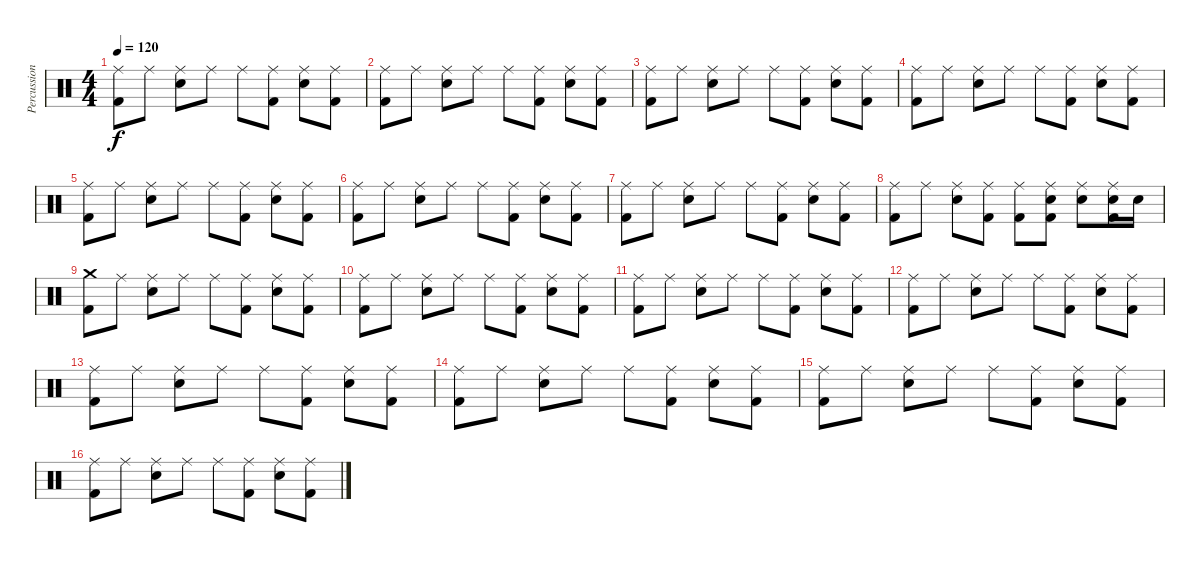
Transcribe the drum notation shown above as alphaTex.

\track ("Percussion" "Percussion") {instrument percussion}
\staff {score}
\articulation defaults
\ts (4 4)
\tempo 120
\clef neutral
\ks c
("Ride (middle)" "Kick (hit) 2").8{dy f} "Ride (middle)".8 ("Ride (middle)" "Snare (hit) 2").8 "Ride (middle)".8 "Ride (middle)".8 ("Ride (middle)" "Kick (hit) 2").8 ("Ride (middle)" "Snare (hit) 2").8 ("Ride (middle)" "Kick (hit) 2").8 |
("Ride (middle)" "Kick (hit) 2").8 "Ride (middle)".8 ("Ride (middle)" "Snare (hit) 2").8 "Ride (middle)".8 "Ride (middle)".8 ("Ride (middle)" "Kick (hit) 2").8 ("Ride (middle)" "Snare (hit) 2").8 ("Ride (middle)" "Kick (hit) 2").8 |
("Ride (middle)" "Kick (hit) 2").8 "Ride (middle)".8 ("Ride (middle)" "Snare (hit) 2").8 "Ride (middle)".8 "Ride (middle)".8 ("Ride (middle)" "Kick (hit) 2").8 ("Ride (middle)" "Snare (hit) 2").8 ("Ride (middle)" "Kick (hit) 2").8 |
("Ride (middle)" "Kick (hit) 2").8 "Ride (middle)".8 ("Ride (middle)" "Snare (hit) 2").8 "Ride (middle)".8 "Ride (middle)".8 ("Ride (middle)" "Kick (hit) 2").8 ("Ride (middle)" "Snare (hit) 2").8 ("Ride (middle)" "Kick (hit) 2").8 |
("Ride (middle)" "Kick (hit) 2").8 "Ride (middle)".8 ("Ride (middle)" "Snare (hit) 2").8 "Ride (middle)".8 "Ride (middle)".8 ("Ride (middle)" "Kick (hit) 2").8 ("Ride (middle)" "Snare (hit) 2").8 ("Ride (middle)" "Kick (hit) 2").8 |
("Ride (middle)" "Kick (hit) 2").8 "Ride (middle)".8 ("Ride (middle)" "Snare (hit) 2").8 "Ride (middle)".8 "Ride (middle)".8 ("Ride (middle)" "Kick (hit) 2").8 ("Ride (middle)" "Snare (hit) 2").8 ("Ride (middle)" "Kick (hit) 2").8 |
("Ride (middle)" "Kick (hit) 2").8 "Ride (middle)".8 ("Ride (middle)" "Snare (hit) 2").8 "Ride (middle)".8 "Ride (middle)".8 ("Ride (middle)" "Kick (hit) 2").8 ("Ride (middle)" "Snare (hit) 2").8 ("Ride (middle)" "Kick (hit) 2").8 |
("Ride (middle)" "Kick (hit) 2").8 "Ride (middle)".8 ("Ride (middle)" "Snare (hit) 2").8 ("Ride (middle)" "Kick (hit) 2").8 ("Ride (middle)" "Kick (hit) 2").8 ("Ride (middle)" "Kick (hit) 2" "Snare (hit) 2").8 ("Ride (middle)" "Snare (hit) 2").8 ("Ride (middle)" "Kick (hit) 2" "Snare (hit) 2").16 "Snare (hit) 2".16 |
("Crash medium (hit)" "Kick (hit) 2").8 "Ride (middle)".8 ("Ride (middle)" "Snare (hit) 2").8 "Ride (middle)".8 "Ride (middle)".8 ("Ride (middle)" "Kick (hit) 2").8 ("Ride (middle)" "Snare (hit) 2").8 ("Ride (middle)" "Kick (hit) 2").8 |
("Ride (middle)" "Kick (hit) 2").8 "Ride (middle)".8 ("Ride (middle)" "Snare (hit) 2").8 "Ride (middle)".8 "Ride (middle)".8 ("Ride (middle)" "Kick (hit) 2").8 ("Ride (middle)" "Snare (hit) 2").8 ("Ride (middle)" "Kick (hit) 2").8 |
("Ride (middle)" "Kick (hit) 2").8 "Ride (middle)".8 ("Ride (middle)" "Snare (hit) 2").8 "Ride (middle)".8 "Ride (middle)".8 ("Ride (middle)" "Kick (hit) 2").8 ("Ride (middle)" "Snare (hit) 2").8 ("Ride (middle)" "Kick (hit) 2").8 |
("Ride (middle)" "Kick (hit) 2").8 "Ride (middle)".8 ("Ride (middle)" "Snare (hit) 2").8 "Ride (middle)".8 "Ride (middle)".8 ("Ride (middle)" "Kick (hit) 2").8 ("Ride (middle)" "Snare (hit) 2").8 ("Ride (middle)" "Kick (hit) 2").8 |
("Ride (middle)" "Kick (hit) 2").8 "Ride (middle)".8 ("Ride (middle)" "Snare (hit) 2").8 "Ride (middle)".8 "Ride (middle)".8 ("Ride (middle)" "Kick (hit) 2").8 ("Ride (middle)" "Snare (hit) 2").8 ("Ride (middle)" "Kick (hit) 2").8 |
("Ride (middle)" "Kick (hit) 2").8 "Ride (middle)".8 ("Ride (middle)" "Snare (hit) 2").8 "Ride (middle)".8 "Ride (middle)".8 ("Ride (middle)" "Kick (hit) 2").8 ("Ride (middle)" "Snare (hit) 2").8 ("Ride (middle)" "Kick (hit) 2").8 |
("Ride (middle)" "Kick (hit) 2").8 "Ride (middle)".8 ("Ride (middle)" "Snare (hit) 2").8 "Ride (middle)".8 "Ride (middle)".8 ("Ride (middle)" "Kick (hit) 2").8 ("Ride (middle)" "Snare (hit) 2").8 ("Ride (middle)" "Kick (hit) 2").8 |
("Ride (middle)" "Kick (hit) 2").8 "Ride (middle)".8 ("Ride (middle)" "Snare (hit) 2").8 "Ride (middle)".8 "Ride (middle)".8 ("Ride (middle)" "Kick (hit) 2").8 ("Ride (middle)" "Snare (hit) 2").8 ("Ride (middle)" "Kick (hit) 2").8
